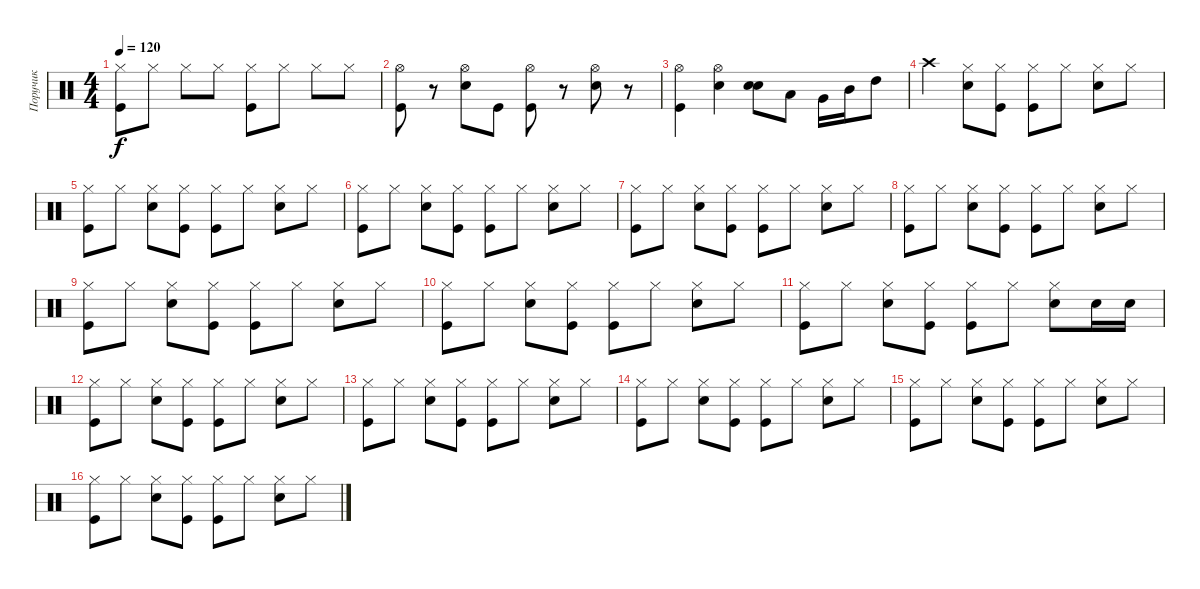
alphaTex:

\track ("Поручик" "Поручик") {instrument percussion}
\staff {score}
\articulation defaults
\ts (4 4)
\tempo 120
\clef neutral
\ks c
("Hi-Hat (closed)" "Kick (hit)").8{dy f} "Hi-Hat (closed)".8 "Hi-Hat (closed)".8 "Hi-Hat (closed)".8 ("Hi-Hat (closed)" "Kick (hit)").8 "Hi-Hat (closed)".8 "Hi-Hat (closed)".8 "Hi-Hat (closed)".8 |
("Hi-Hat (open)" "Kick (hit)").8 r.8 ("Hi-Hat (open)" "Snare (hit) 2").8 "Kick (hit)".8 ("Hi-Hat (open)" "Kick (hit)").8 r.8 ("Hi-Hat (open)" "Snare (hit) 2").8 r.8 |
("Hi-Hat (open)" "Kick (hit)").4 ("Hi-Hat (open)" "Snare (hit) 2").4 ("Electric Snare (hit)" "Electric Snare (hit)").8 "Low Tom (hit)".8 "Very Low Tom (hit)".16 "Mid Tom (hit)".16 "High Tom (hit)".8 |
"Crash high (hit)".4 ("Hi-Hat (closed)" "Snare (hit) 2").8 ("Hi-Hat (closed)" "Kick (hit)").8 ("Hi-Hat (closed)" "Kick (hit)").8 "Hi-Hat (closed)".8 ("Hi-Hat (closed)" "Snare (hit) 2").8 "Hi-Hat (closed)".8 |
("Hi-Hat (closed)" "Kick (hit)").8 "Hi-Hat (closed)".8 ("Hi-Hat (closed)" "Snare (hit) 2").8 ("Hi-Hat (closed)" "Kick (hit)").8 ("Hi-Hat (closed)" "Kick (hit)").8 "Hi-Hat (closed)".8 ("Hi-Hat (closed)" "Snare (hit) 2").8 "Hi-Hat (closed)".8 |
("Hi-Hat (closed)" "Kick (hit)").8 "Hi-Hat (closed)".8 ("Hi-Hat (closed)" "Snare (hit) 2").8 ("Hi-Hat (closed)" "Kick (hit)").8 ("Hi-Hat (closed)" "Kick (hit)").8 "Hi-Hat (closed)".8 ("Hi-Hat (closed)" "Snare (hit) 2").8 "Hi-Hat (closed)".8 |
("Hi-Hat (closed)" "Kick (hit)").8 "Hi-Hat (closed)".8 ("Hi-Hat (closed)" "Snare (hit) 2").8 ("Hi-Hat (closed)" "Kick (hit)").8 ("Hi-Hat (closed)" "Kick (hit)").8 "Hi-Hat (closed)".8 ("Hi-Hat (closed)" "Snare (hit) 2").8 "Hi-Hat (closed)".8 |
("Hi-Hat (closed)" "Kick (hit)").8 "Hi-Hat (closed)".8 ("Hi-Hat (closed)" "Snare (hit) 2").8 ("Hi-Hat (closed)" "Kick (hit)").8 ("Hi-Hat (closed)" "Kick (hit)").8 "Hi-Hat (closed)".8 ("Hi-Hat (closed)" "Snare (hit) 2").8 "Hi-Hat (closed)".8 |
("Hi-Hat (closed)" "Kick (hit)").8 "Hi-Hat (closed)".8 ("Hi-Hat (closed)" "Snare (hit) 2").8 ("Hi-Hat (closed)" "Kick (hit)").8 ("Hi-Hat (closed)" "Kick (hit)").8 "Hi-Hat (closed)".8 ("Hi-Hat (closed)" "Snare (hit) 2").8 "Hi-Hat (closed)".8 |
("Hi-Hat (closed)" "Kick (hit)").8 "Hi-Hat (closed)".8 ("Hi-Hat (closed)" "Snare (hit) 2").8 ("Hi-Hat (closed)" "Kick (hit)").8 ("Hi-Hat (closed)" "Kick (hit)").8 "Hi-Hat (closed)".8 ("Hi-Hat (closed)" "Snare (hit) 2").8 "Hi-Hat (closed)".8 |
("Hi-Hat (closed)" "Kick (hit)").8 "Hi-Hat (closed)".8 ("Hi-Hat (closed)" "Snare (hit) 2").8 ("Hi-Hat (closed)" "Kick (hit)").8 ("Hi-Hat (closed)" "Kick (hit)").8 "Hi-Hat (closed)".8 ("Hi-Hat (closed)" "Snare (hit) 2").8 "Snare (hit) 2".16 "Snare (hit) 2".16 |
("Hi-Hat (closed)" "Kick (hit)").8 "Hi-Hat (closed)".8 ("Hi-Hat (closed)" "Snare (hit) 2").8 ("Hi-Hat (closed)" "Kick (hit)").8 ("Hi-Hat (closed)" "Kick (hit)").8 "Hi-Hat (closed)".8 ("Hi-Hat (closed)" "Snare (hit) 2").8 "Hi-Hat (closed)".8 |
("Hi-Hat (closed)" "Kick (hit)").8 "Hi-Hat (closed)".8 ("Hi-Hat (closed)" "Snare (hit) 2").8 ("Hi-Hat (closed)" "Kick (hit)").8 ("Hi-Hat (closed)" "Kick (hit)").8 "Hi-Hat (closed)".8 ("Hi-Hat (closed)" "Snare (hit) 2").8 "Hi-Hat (closed)".8 |
("Hi-Hat (closed)" "Kick (hit)").8 "Hi-Hat (closed)".8 ("Hi-Hat (closed)" "Snare (hit) 2").8 ("Hi-Hat (closed)" "Kick (hit)").8 ("Hi-Hat (closed)" "Kick (hit)").8 "Hi-Hat (closed)".8 ("Hi-Hat (closed)" "Snare (hit) 2").8 "Hi-Hat (closed)".8 |
("Hi-Hat (closed)" "Kick (hit)").8 "Hi-Hat (closed)".8 ("Hi-Hat (closed)" "Snare (hit) 2").8 ("Hi-Hat (closed)" "Kick (hit)").8 ("Hi-Hat (closed)" "Kick (hit)").8 "Hi-Hat (closed)".8 ("Hi-Hat (closed)" "Snare (hit) 2").8 "Hi-Hat (closed)".8 |
("Hi-Hat (closed)" "Kick (hit)").8 "Hi-Hat (closed)".8 ("Hi-Hat (closed)" "Snare (hit) 2").8 ("Hi-Hat (closed)" "Kick (hit)").8 ("Hi-Hat (closed)" "Kick (hit)").8 "Hi-Hat (closed)".8 ("Hi-Hat (closed)" "Snare (hit) 2").8 "Hi-Hat (closed)".8
